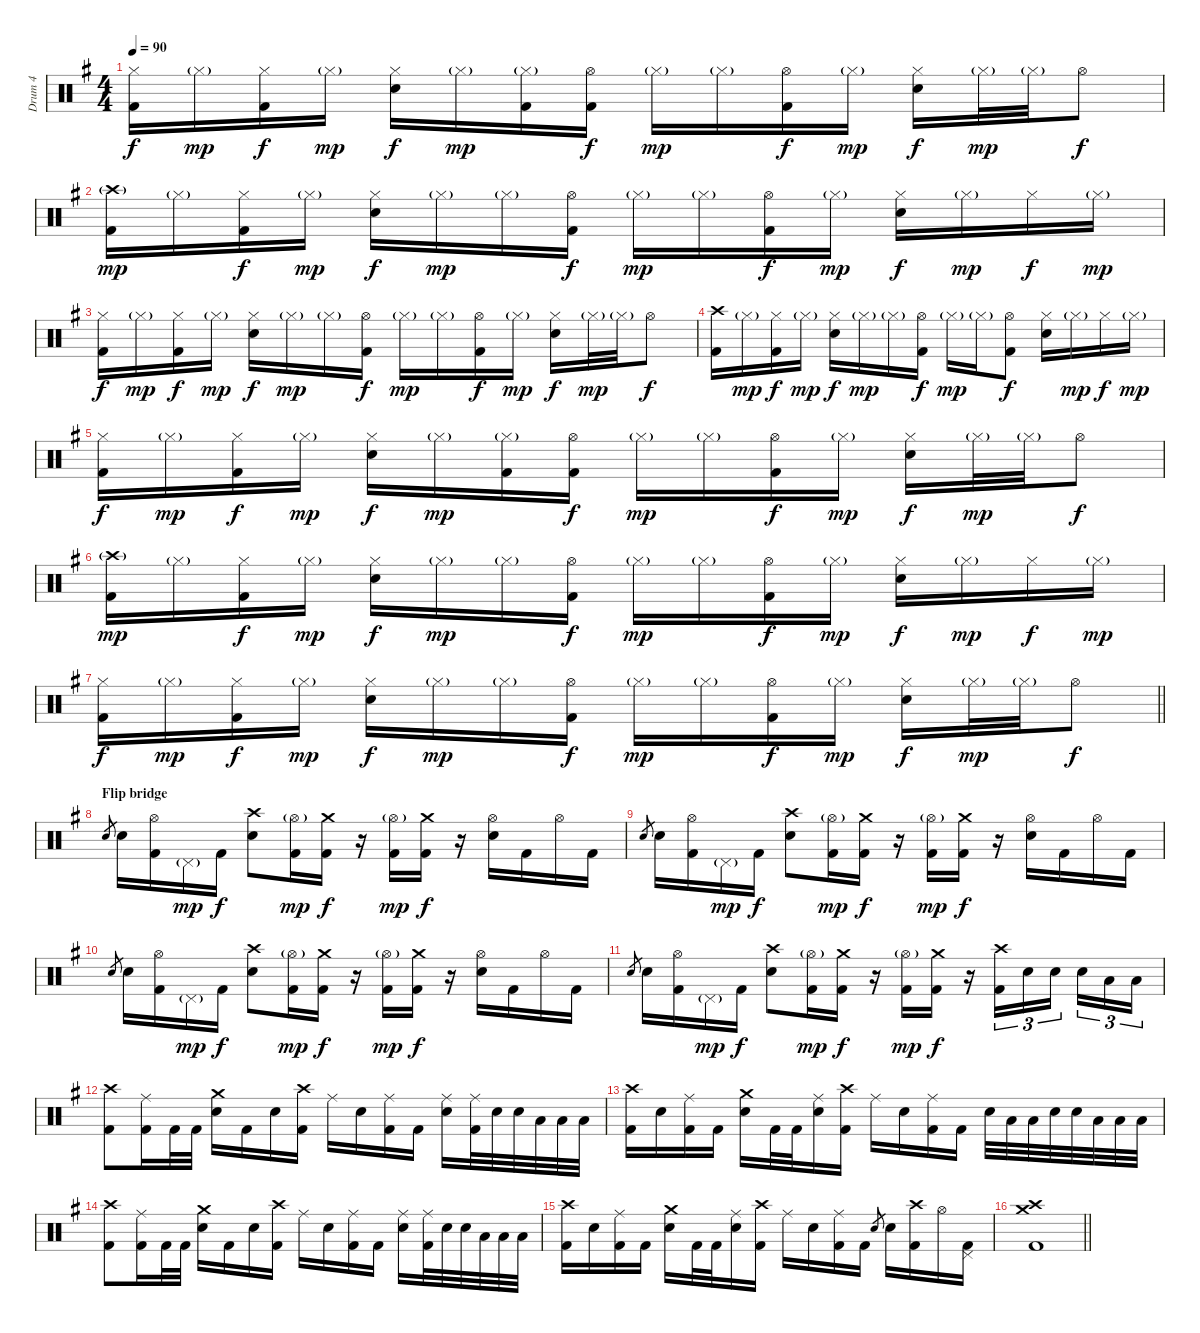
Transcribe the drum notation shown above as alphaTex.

\track ("Drum 4" "Drum 4") {instrument percussion}
\staff {score}
\articulation defaults
\ts (4 4)
\tempo 90
\clef neutral
\ks eminor
("Hi-Hat (closed)" "Kick (hit) 2").16{dy f} "Hi-Hat (closed)"{g}.16{dy mp} ("Hi-Hat (closed)" "Kick (hit) 2").16{dy f} "Hi-Hat (closed)"{g}.16{dy mp} ("Hi-Hat (closed)" "Snare (hit) 2").16{dy f} "Hi-Hat (closed)"{g}.16{dy mp} ("Hi-Hat (closed)"{g} "Kick (hit) 2").16 ("Hi-Hat (open)" "Kick (hit) 2").16{dy f} "Hi-Hat (closed)"{g}.16{dy mp} "Hi-Hat (closed)"{g}.16 ("Hi-Hat (open)" "Kick (hit) 2").16{dy f} "Hi-Hat (closed)"{g}.16{dy mp} ("Hi-Hat (closed)" "Snare (hit) 2").16{dy f} "Hi-Hat (closed)"{g}.32{dy mp} "Hi-Hat (closed)"{g}.32 "Hi-Hat (open)".8{dy f} |
("Crash high (hit)"{g} "Kick (hit) 2").16{dy mp} "Hi-Hat (closed)"{g}.16 ("Hi-Hat (closed)" "Kick (hit) 2").16{dy f} "Hi-Hat (closed)"{g}.16{dy mp} ("Hi-Hat (closed)" "Snare (hit) 2").16{dy f} "Hi-Hat (closed)"{g}.16{dy mp} "Hi-Hat (closed)"{g}.16 ("Hi-Hat (open)" "Kick (hit) 2").16{dy f} "Hi-Hat (closed)"{g}.16{dy mp} "Hi-Hat (closed)"{g}.16 ("Hi-Hat (open)" "Kick (hit) 2").16{dy f} "Hi-Hat (closed)"{g}.16{dy mp} ("Hi-Hat (closed)" "Snare (hit) 2").16{dy f} "Hi-Hat (closed)"{g}.16{dy mp} "Hi-Hat (closed)".16{dy f} "Hi-Hat (closed)"{g}.16{dy mp} |
("Hi-Hat (closed)" "Kick (hit) 2").16{dy f} "Hi-Hat (closed)"{g}.16{dy mp} ("Hi-Hat (closed)" "Kick (hit) 2").16{dy f} "Hi-Hat (closed)"{g}.16{dy mp} ("Hi-Hat (closed)" "Snare (hit) 2").16{dy f} "Hi-Hat (closed)"{g}.16{dy mp} "Hi-Hat (closed)"{g}.16 ("Hi-Hat (open)" "Kick (hit) 2").16{dy f} "Hi-Hat (closed)"{g}.16{dy mp} "Hi-Hat (closed)"{g}.16 ("Hi-Hat (open)" "Kick (hit) 2").16{dy f} "Hi-Hat (closed)"{g}.16{dy mp} ("Hi-Hat (closed)" "Snare (hit) 2").16{dy f} "Hi-Hat (closed)"{g}.32{dy mp} "Hi-Hat (closed)"{g}.32 "Hi-Hat (open)".8{dy f} |
("Crash high (hit)" "Kick (hit) 2").16 "Hi-Hat (closed)"{g}.16{dy mp} ("Hi-Hat (closed)" "Kick (hit) 2").16{dy f} "Hi-Hat (closed)"{g}.16{dy mp} ("Hi-Hat (closed)" "Snare (hit) 2").16{dy f} "Hi-Hat (closed)"{g}.16{dy mp} "Hi-Hat (closed)"{g}.16 ("Hi-Hat (open)" "Kick (hit) 2").16{dy f} "Hi-Hat (closed)"{g}.16{dy mp} "Hi-Hat (closed)"{g}.16 ("Hi-Hat (open)" "Kick (hit) 2").8{dy f} ("Hi-Hat (closed)" "Snare (hit) 2").16 "Hi-Hat (closed)"{g}.16{dy mp} "Hi-Hat (closed)".16{dy f} "Hi-Hat (closed)"{g}.16{dy mp} |
("Hi-Hat (closed)" "Kick (hit) 2").16{dy f} "Hi-Hat (closed)"{g}.16{dy mp} ("Hi-Hat (closed)" "Kick (hit) 2").16{dy f} "Hi-Hat (closed)"{g}.16{dy mp} ("Hi-Hat (closed)" "Snare (hit) 2").16{dy f} "Hi-Hat (closed)"{g}.16{dy mp} ("Hi-Hat (closed)"{g} "Kick (hit) 2").16 ("Hi-Hat (open)" "Kick (hit) 2").16{dy f} "Hi-Hat (closed)"{g}.16{dy mp} "Hi-Hat (closed)"{g}.16 ("Hi-Hat (open)" "Kick (hit) 2").16{dy f} "Hi-Hat (closed)"{g}.16{dy mp} ("Hi-Hat (closed)" "Snare (hit) 2").16{dy f} "Hi-Hat (closed)"{g}.32{dy mp} "Hi-Hat (closed)"{g}.32 "Hi-Hat (open)".8{dy f} |
("Crash high (hit)"{g} "Kick (hit) 2").16{dy mp} "Hi-Hat (closed)"{g}.16 ("Hi-Hat (closed)" "Kick (hit) 2").16{dy f} "Hi-Hat (closed)"{g}.16{dy mp} ("Hi-Hat (closed)" "Snare (hit) 2").16{dy f} "Hi-Hat (closed)"{g}.16{dy mp} "Hi-Hat (closed)"{g}.16 ("Hi-Hat (open)" "Kick (hit) 2").16{dy f} "Hi-Hat (closed)"{g}.16{dy mp} "Hi-Hat (closed)"{g}.16 ("Hi-Hat (open)" "Kick (hit) 2").16{dy f} "Hi-Hat (closed)"{g}.16{dy mp} ("Hi-Hat (closed)" "Snare (hit) 2").16{dy f} "Hi-Hat (closed)"{g}.16{dy mp} "Hi-Hat (closed)".16{dy f} "Hi-Hat (closed)"{g}.16{dy mp} |
\barLineRight lightlight
("Hi-Hat (closed)" "Kick (hit) 2").16{dy f} "Hi-Hat (closed)"{g}.16{dy mp} ("Hi-Hat (closed)" "Kick (hit) 2").16{dy f} "Hi-Hat (closed)"{g}.16{dy mp} ("Hi-Hat (closed)" "Snare (hit) 2").16{dy f} "Hi-Hat (closed)"{g}.16{dy mp} "Hi-Hat (closed)"{g}.16 ("Hi-Hat (open)" "Kick (hit) 2").16{dy f} "Hi-Hat (closed)"{g}.16{dy mp} "Hi-Hat (closed)"{g}.16 ("Hi-Hat (open)" "Kick (hit) 2").16{dy f} "Hi-Hat (closed)"{g}.16{dy mp} ("Hi-Hat (closed)" "Snare (hit) 2").16{dy f} "Hi-Hat (closed)"{g}.32{dy mp} "Hi-Hat (closed)"{g}.32 "Hi-Hat (open)".8{dy f} |
\section ("" "Flip bridge")
"Snare (hit) 2".8{gr} "Snare (hit) 2".16 ("Hi-Hat (open)" "Kick (hit) 2").16 "Pedal Hi-Hat (hit)"{g}.16{dy mp} "Kick (hit) 2".16{dy f} ("Crash high (hit)" "Snare (hit) 2").8 ("Hi-Hat (open)"{g} "Kick (hit) 2").16{dy mp} ("Crash medium (hit)" "Kick (hit) 2").16{dy f} r.16 ("Hi-Hat (open)"{g} "Kick (hit) 2").16{dy mp} ("Crash medium (hit)" "Kick (hit) 2").16{dy f} r.16 ("Hi-Hat (open)" "Snare (hit) 2").16 "Kick (hit) 2".16 "Hi-Hat (open)".16 "Kick (hit) 2".16 |
"Snare (hit) 2".8{gr} "Snare (hit) 2".16 ("Hi-Hat (open)" "Kick (hit) 2").16 "Pedal Hi-Hat (hit)"{g}.16{dy mp} "Kick (hit) 2".16{dy f} ("Crash high (hit)" "Snare (hit) 2").8 ("Hi-Hat (open)"{g} "Kick (hit) 2").16{dy mp} ("Crash medium (hit)" "Kick (hit) 2").16{dy f} r.16 ("Hi-Hat (open)"{g} "Kick (hit) 2").16{dy mp} ("Crash medium (hit)" "Kick (hit) 2").16{dy f} r.16 ("Hi-Hat (open)" "Snare (hit) 2").16 "Kick (hit) 2".16 "Hi-Hat (open)".16 "Kick (hit) 2".16 |
"Snare (hit) 2".8{gr} "Snare (hit) 2".16 ("Hi-Hat (open)" "Kick (hit) 2").16 "Pedal Hi-Hat (hit)"{g}.16{dy mp} "Kick (hit) 2".16{dy f} ("Crash high (hit)" "Snare (hit) 2").8 ("Hi-Hat (open)"{g} "Kick (hit) 2").16{dy mp} ("Crash medium (hit)" "Kick (hit) 2").16{dy f} r.16 ("Hi-Hat (open)"{g} "Kick (hit) 2").16{dy mp} ("Crash medium (hit)" "Kick (hit) 2").16{dy f} r.16 ("Hi-Hat (open)" "Snare (hit) 2").16 "Kick (hit) 2".16 "Hi-Hat (open)".16 "Kick (hit) 2".16 |
"Snare (hit) 2".8{gr} "Snare (hit) 2".16 ("Hi-Hat (open)" "Kick (hit) 2").16 "Pedal Hi-Hat (hit)"{g}.16{dy mp} "Kick (hit) 2".16{dy f} ("Crash high (hit)" "Snare (hit) 2").8 ("Hi-Hat (open)"{g} "Kick (hit) 2").16{dy mp} ("Crash medium (hit)" "Kick (hit) 2").16{dy f} r.16 ("Hi-Hat (open)"{g} "Kick (hit) 2").16{dy mp} ("Crash medium (hit)" "Kick (hit) 2").16{dy f} r.16 ("Crash high (hit)" "Kick (hit) 2").16{tu (3 2)} "Snare (hit) 2".16{tu (3 2)} "Snare (hit) 2".16{tu (3 2) beam splitsecondary} "Snare (hit) 2".16{tu (3 2)} "Low Tom (hit)".16{tu (3 2)} "Low Tom (hit)".16{tu (3 2)} |
("Crash high (hit)" "Kick (hit) 2").8 ("Ride (middle)" "Kick (hit) 2").16 "Kick (hit) 2".32 "Kick (hit) 2".32 ("Crash medium (hit)" "Snare (hit) 2").16 "Kick (hit) 2".16 "Snare (hit) 2".16 ("Crash high (hit)" "Kick (hit) 2").16 "Ride (middle)".16 "Snare (hit) 2".16 ("Ride (middle)" "Kick (hit) 2").16 "Kick (hit) 2".16 ("Ride (middle)" "Snare (hit) 2").16 ("Ride (middle)" "Kick (hit) 2").32 "Snare (hit) 2".32 "Snare (hit) 2".32 "Low Tom (hit)".32 "Low Tom (hit)".32 "Low Tom (hit)".32 |
("Crash high (hit)" "Kick (hit) 2").16 "Snare (hit) 2".16 ("Ride (middle)" "Kick (hit) 2").16 "Kick (hit) 2".16 ("Crash medium (hit)" "Snare (hit) 2").16 "Kick (hit) 2".32 "Kick (hit) 2".32 ("Ride (middle)" "Snare (hit) 2").16 ("Crash high (hit)" "Kick (hit) 2").16 "Ride (middle)".16 "Snare (hit) 2".16 ("Ride (middle)" "Kick (hit) 2").16 "Kick (hit) 2".16 "Snare (hit) 2".32 "Low Floor Tom (hit)".32 "Low Floor Tom (hit)".32 "Snare (hit) 2".32 "Snare (hit) 2".32 "Low Tom (hit)".32 "Low Tom (hit)".32 "Low Tom (hit)".32 |
("Crash high (hit)" "Kick (hit) 2").8 ("Ride (middle)" "Kick (hit) 2").16 "Kick (hit) 2".32 "Kick (hit) 2".32 ("Crash medium (hit)" "Snare (hit) 2").16 "Kick (hit) 2".16 "Snare (hit) 2".16 ("Crash high (hit)" "Kick (hit) 2").16 "Ride (middle)".16 "Snare (hit) 2".16 ("Ride (middle)" "Kick (hit) 2").16 "Kick (hit) 2".16 ("Ride (middle)" "Snare (hit) 2").16 ("Ride (middle)" "Kick (hit) 2").32 "Snare (hit) 2".32 "Snare (hit) 2".32 "Low Tom (hit)".32 "Low Tom (hit)".32 "Low Tom (hit)".32 |
("Crash high (hit)" "Kick (hit) 2").16 "Snare (hit) 2".16 ("Ride (middle)" "Kick (hit) 2").16 "Kick (hit) 2".16 ("Crash medium (hit)" "Snare (hit) 2").16 "Kick (hit) 2".32 "Kick (hit) 2".32 ("Ride (middle)" "Snare (hit) 2").16 ("Crash high (hit)" "Kick (hit) 2").16 "Ride (middle)".16 "Snare (hit) 2".16 ("Ride (middle)" "Kick (hit) 2").16 "Kick (hit) 2".16 "Snare (hit) 2".8{gr} "Snare (hit) 2".16 ("Crash high (hit)" "Kick (hit) 2").16 "Hi-Hat (open)".16 ("Pedal Hi-Hat (hit)" "Kick (hit) 2").16 |
\barLineRight lightlight
("Crash high (hit)" "Crash medium (hit)" "Kick (hit) 2").1
